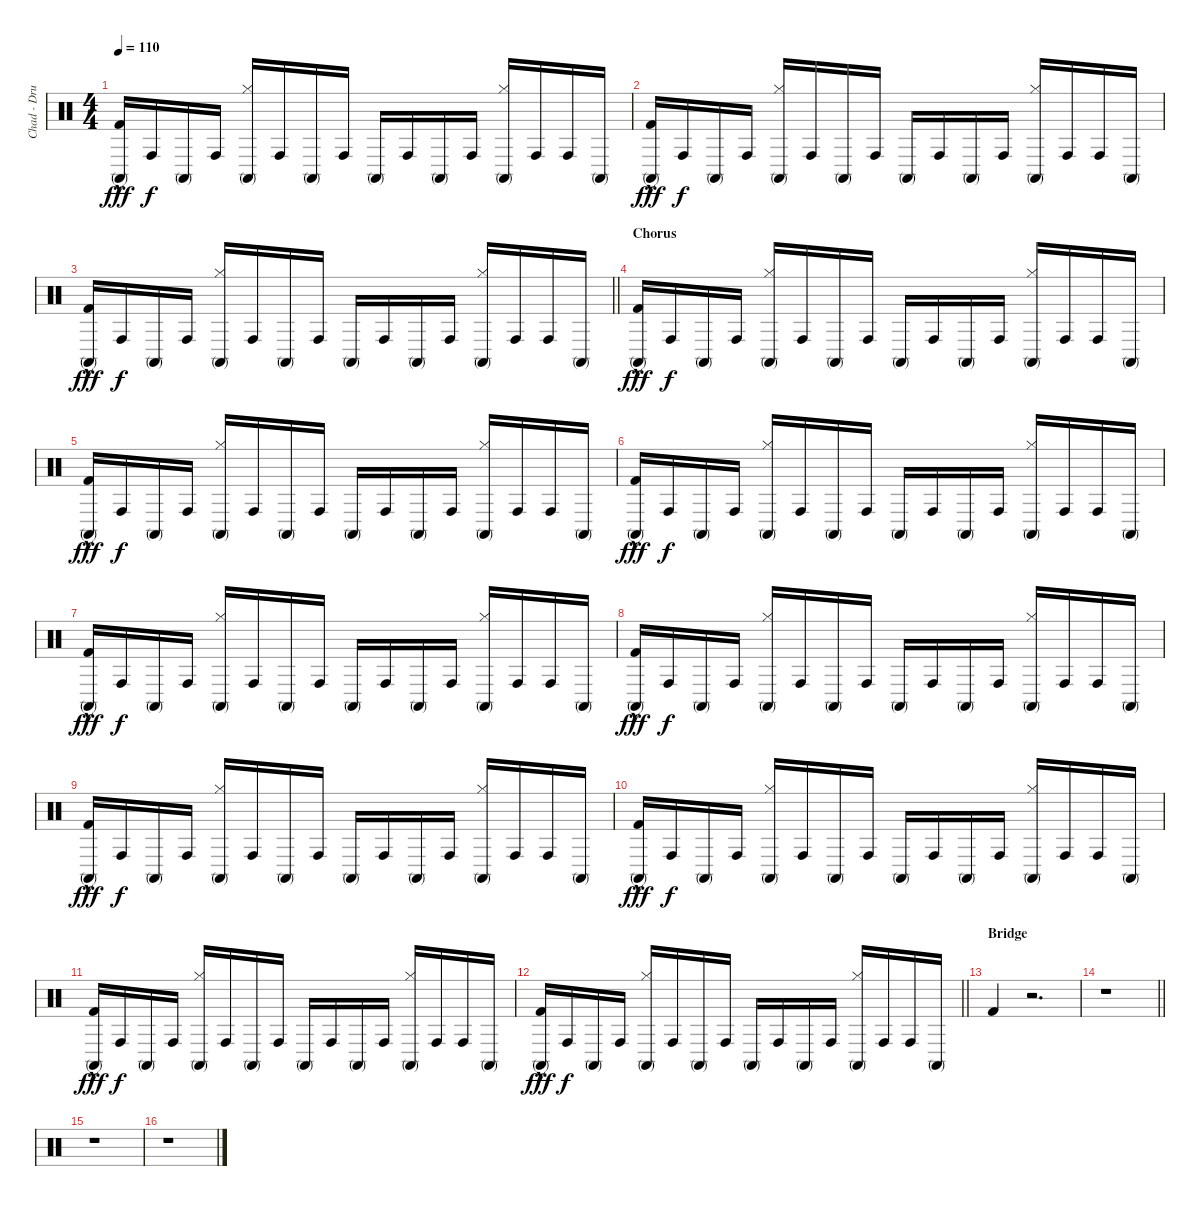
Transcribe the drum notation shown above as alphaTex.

\track ("Chad - Drums" "Chad - Dru") {instrument percussion}
\staff {score}
\articulation defaults
\ts (4 4)
\tempo 110
\clef neutral
\ks c
("Conga high (mute)" "Kick (hit) 2"{hac}).16{dy fff} "Conga high (hit)".16{dy f} "Conga high (mute)".16 "Conga high (hit)".16 ("Conga high (mute)" "Hi-Hat (closed)").16 "Conga high (hit)".16 "Conga high (mute)".16 "Conga high (hit)".16 "Conga high (mute)".16 "Conga high (hit)".16 "Conga high (mute)".16 "Conga high (hit)".16 ("Conga high (mute)" "Hi-Hat (closed)").16 "Conga high (hit)".16 "Conga high (hit)".16 "Conga high (mute)".16 |
("Conga high (mute)" "Kick (hit) 2"{hac}).16{dy fff} "Conga high (hit)".16{dy f} "Conga high (mute)".16 "Conga high (hit)".16 ("Conga high (mute)" "Hi-Hat (closed)").16 "Conga high (hit)".16 "Conga high (mute)".16 "Conga high (hit)".16 "Conga high (mute)".16 "Conga high (hit)".16 "Conga high (mute)".16 "Conga high (hit)".16 ("Conga high (mute)" "Hi-Hat (closed)").16 "Conga high (hit)".16 "Conga high (hit)".16 "Conga high (mute)".16 |
\barLineRight lightlight
("Conga high (mute)" "Kick (hit) 2"{hac}).16{dy fff} "Conga high (hit)".16{dy f} "Conga high (mute)".16 "Conga high (hit)".16 ("Conga high (mute)" "Hi-Hat (closed)").16 "Conga high (hit)".16 "Conga high (mute)".16 "Conga high (hit)".16 "Conga high (mute)".16 "Conga high (hit)".16 "Conga high (mute)".16 "Conga high (hit)".16 ("Conga high (mute)" "Hi-Hat (closed)").16 "Conga high (hit)".16 "Conga high (hit)".16 "Conga high (mute)".16 |
\section ("" "Chorus")
("Conga high (mute)" "Kick (hit) 2"{hac}).16{dy fff} "Conga high (hit)".16{dy f} "Conga high (mute)".16 "Conga high (hit)".16 ("Conga high (mute)" "Hi-Hat (closed)").16 "Conga high (hit)".16 "Conga high (mute)".16 "Conga high (hit)".16 "Conga high (mute)".16 "Conga high (hit)".16 "Conga high (mute)".16 "Conga high (hit)".16 ("Conga high (mute)" "Hi-Hat (closed)").16 "Conga high (hit)".16 "Conga high (hit)".16 "Conga high (mute)".16 |
("Conga high (mute)" "Kick (hit) 2"{hac}).16{dy fff} "Conga high (hit)".16{dy f} "Conga high (mute)".16 "Conga high (hit)".16 ("Conga high (mute)" "Hi-Hat (closed)").16 "Conga high (hit)".16 "Conga high (mute)".16 "Conga high (hit)".16 "Conga high (mute)".16 "Conga high (hit)".16 "Conga high (mute)".16 "Conga high (hit)".16 ("Conga high (mute)" "Hi-Hat (closed)").16 "Conga high (hit)".16 "Conga high (hit)".16 "Conga high (mute)".16 |
("Conga high (mute)" "Kick (hit) 2"{hac}).16{dy fff} "Conga high (hit)".16{dy f} "Conga high (mute)".16 "Conga high (hit)".16 ("Conga high (mute)" "Hi-Hat (closed)").16 "Conga high (hit)".16 "Conga high (mute)".16 "Conga high (hit)".16 "Conga high (mute)".16 "Conga high (hit)".16 "Conga high (mute)".16 "Conga high (hit)".16 ("Conga high (mute)" "Hi-Hat (closed)").16 "Conga high (hit)".16 "Conga high (hit)".16 "Conga high (mute)".16 |
("Conga high (mute)" "Kick (hit) 2"{hac}).16{dy fff} "Conga high (hit)".16{dy f} "Conga high (mute)".16 "Conga high (hit)".16 ("Conga high (mute)" "Hi-Hat (closed)").16 "Conga high (hit)".16 "Conga high (mute)".16 "Conga high (hit)".16 "Conga high (mute)".16 "Conga high (hit)".16 "Conga high (mute)".16 "Conga high (hit)".16 ("Conga high (mute)" "Hi-Hat (closed)").16 "Conga high (hit)".16 "Conga high (hit)".16 "Conga high (mute)".16 |
("Conga high (mute)" "Kick (hit) 2"{hac}).16{dy fff} "Conga high (hit)".16{dy f} "Conga high (mute)".16 "Conga high (hit)".16 ("Conga high (mute)" "Hi-Hat (closed)").16 "Conga high (hit)".16 "Conga high (mute)".16 "Conga high (hit)".16 "Conga high (mute)".16 "Conga high (hit)".16 "Conga high (mute)".16 "Conga high (hit)".16 ("Conga high (mute)" "Hi-Hat (closed)").16 "Conga high (hit)".16 "Conga high (hit)".16 "Conga high (mute)".16 |
("Conga high (mute)" "Kick (hit) 2"{hac}).16{dy fff} "Conga high (hit)".16{dy f} "Conga high (mute)".16 "Conga high (hit)".16 ("Conga high (mute)" "Hi-Hat (closed)").16 "Conga high (hit)".16 "Conga high (mute)".16 "Conga high (hit)".16 "Conga high (mute)".16 "Conga high (hit)".16 "Conga high (mute)".16 "Conga high (hit)".16 ("Conga high (mute)" "Hi-Hat (closed)").16 "Conga high (hit)".16 "Conga high (hit)".16 "Conga high (mute)".16 |
("Conga high (mute)" "Kick (hit) 2"{hac}).16{dy fff} "Conga high (hit)".16{dy f} "Conga high (mute)".16 "Conga high (hit)".16 ("Conga high (mute)" "Hi-Hat (closed)").16 "Conga high (hit)".16 "Conga high (mute)".16 "Conga high (hit)".16 "Conga high (mute)".16 "Conga high (hit)".16 "Conga high (mute)".16 "Conga high (hit)".16 ("Conga high (mute)" "Hi-Hat (closed)").16 "Conga high (hit)".16 "Conga high (hit)".16 "Conga high (mute)".16 |
("Conga high (mute)" "Kick (hit) 2"{hac}).16{dy fff} "Conga high (hit)".16{dy f} "Conga high (mute)".16 "Conga high (hit)".16 ("Conga high (mute)" "Hi-Hat (closed)").16 "Conga high (hit)".16 "Conga high (mute)".16 "Conga high (hit)".16 "Conga high (mute)".16 "Conga high (hit)".16 "Conga high (mute)".16 "Conga high (hit)".16 ("Conga high (mute)" "Hi-Hat (closed)").16 "Conga high (hit)".16 "Conga high (hit)".16 "Conga high (mute)".16 |
\barLineRight lightlight
("Conga high (mute)" "Kick (hit) 2"{hac}).16{dy fff} "Conga high (hit)".16{dy f} "Conga high (mute)".16 "Conga high (hit)".16 ("Conga high (mute)" "Hi-Hat (closed)").16 "Conga high (hit)".16 "Conga high (mute)".16 "Conga high (hit)".16 "Conga high (mute)".16 "Conga high (hit)".16 "Conga high (mute)".16 "Conga high (hit)".16 ("Conga high (mute)" "Hi-Hat (closed)").16 "Conga high (hit)".16 "Conga high (hit)".16 "Conga high (mute)".16 |
\section ("" "Bridge")
"Kick (hit) 2".4 r.2{d} |
\barLineRight lightlight
r.1 |
r.1 |
r.1
